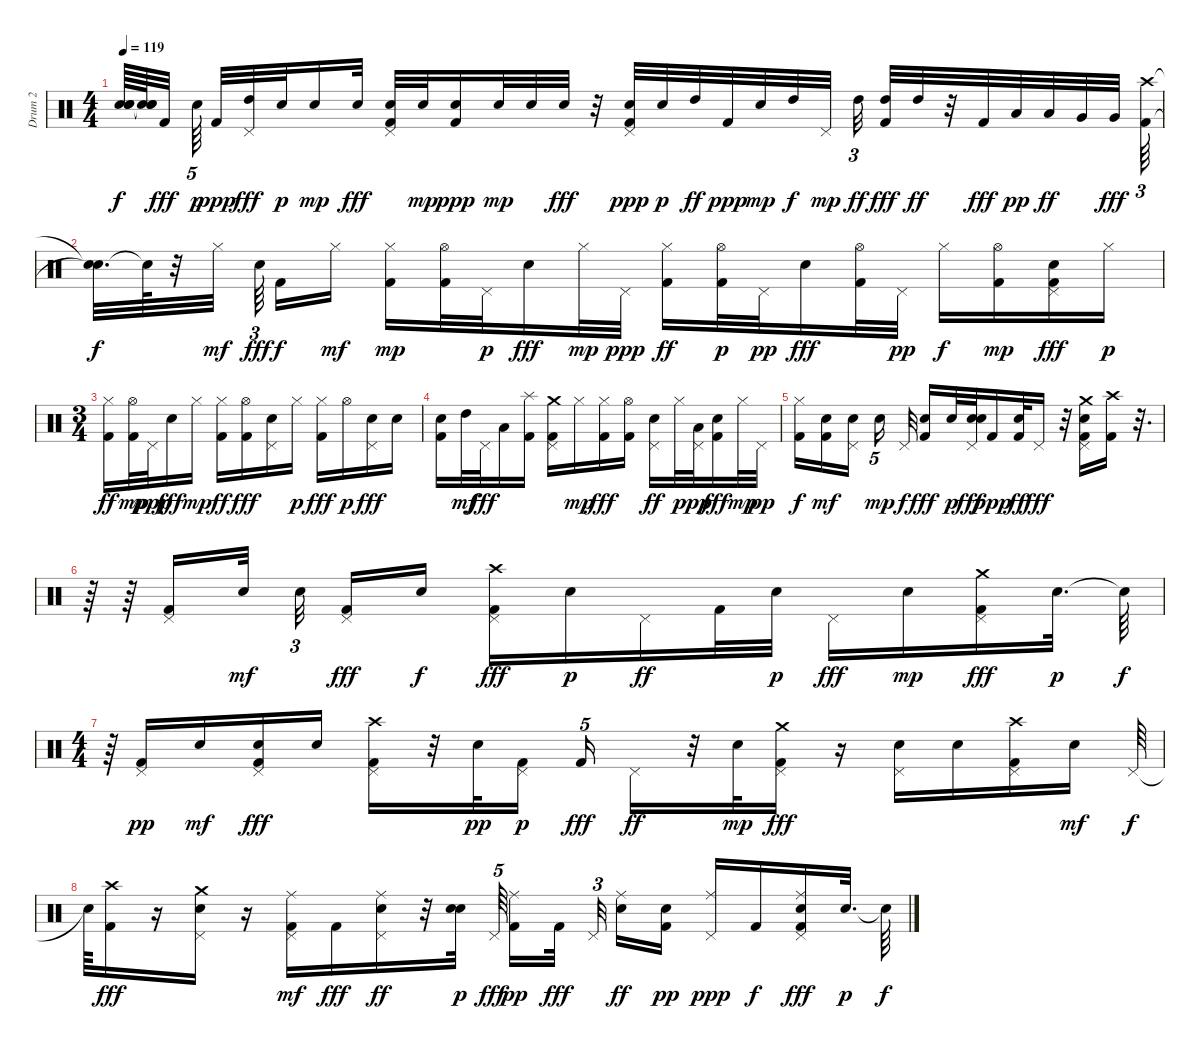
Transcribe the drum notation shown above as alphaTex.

\track ("Drum 2                          " "Drum 2    ") {instrument percussion}
\staff {score}
\articulation defaults
\ts (4 4)
\tempo 119
\clef neutral
\ks c
("Snare (hit)"{t} "Snare (hit)"{t} "Snare (hit)"{t}).64{dy f} ("Snare (hit)"{t} "Snare (hit)"{t} "Snare (hit)"{t}).64 "Kick (hit) 2".32{dy fff beam splitsecondary} "Snare (hit) 2".64{tu (5 4) dy p beam splitsecondary} "Kick (hit) 2".32{dy ppp} ("High Tom (hit)" "Pedal Hi-Hat (hit)").32{dy fff} "Snare (hit) 2".32{dy p} "Snare (hit) 2".16{dy mp} "Electric Snare (hit)".32{dy fff} ("Kick (hit) 2" "Pedal Hi-Hat (hit)" "Snare (hit) 2").32 "Snare (hit) 2".32{dy mp} ("Snare (hit) 2" "Kick (hit) 2").16{dy ppp} "Snare (hit) 2".32{dy mp} "Snare (hit) 2".32 "Snare (hit) 2".32{dy fff} r.32 ("Snare (hit) 2" "Pedal Hi-Hat (hit)" "Kick (hit) 2").32{dy ppp} "Snare (hit) 2".32{dy p} "High Tom (hit)".32{dy ff} "Kick (hit) 2".32{dy ppp} "Snare (hit) 2".32{dy mp} "High Tom (hit)".32{dy f} "Pedal Hi-Hat (hit)".32{dy mp beam splitsecondary} "High Tom (hit)".32{tu (3 2) dy ff} ("Kick (hit) 2" "High Tom (hit)").32{dy fff} "High Tom (hit)".32{dy ff} r.32 "Kick (hit) 2".32{dy fff} "Low Tom (hit)".32{dy pp} "Low Tom (hit)".32{dy ff} "Very Low Tom (hit)".32 "Very Low Tom (hit)".32{dy fff} ("Crash high (hit)" "Kick (hit) 2").64{tu (3 2)} |
("Snare (hit)"{t} "Snare (hit)"{t}).32{d dy f} "Snare (hit)"{t}.64 r.32 "Hi-Hat (closed)".32{dy mf beam splitsecondary} "Snare (hit) 2".64{tu (3 2) dy fff beam splitsecondary} "Kick (hit) 2".16{dy f} "Hi-Hat (closed)".16{dy mf} ("Kick (hit) 2" "Hi-Hat (closed)").16{dy mp} ("Kick (hit) 2" "Hi-Hat (open)").32 "Pedal Hi-Hat (hit)".32{dy p} "Snare (hit) 2".16{dy fff} "Hi-Hat (closed)".32{dy mp} "Pedal Hi-Hat (hit)".32{dy ppp} ("Kick (hit) 2" "Hi-Hat (closed)").16{dy ff} ("Kick (hit) 2" "Hi-Hat (open)").32{dy p} "Pedal Hi-Hat (hit)".32{dy pp} "Snare (hit) 2".16{dy fff} ("Hi-Hat (open)" "Kick (hit) 2").32 "Pedal Hi-Hat (hit)".32{dy pp} "Hi-Hat (closed)".16{dy f} ("Kick (hit) 2" "Hi-Hat (open)").16{dy mp} ("Pedal Hi-Hat (hit)" "Kick (hit) 2" "Snare (hit) 2").16{dy fff} "Hi-Hat (closed)".16{dy p} |
\ts (3 4)
("Kick (hit) 2" "Hi-Hat (closed)").16{dy ff} ("Kick (hit) 2" "Hi-Hat (open)").32{dy mp} "Pedal Hi-Hat (hit)".32{dy ppp} "Snare (hit) 2".16{dy fff} "Hi-Hat (closed)".16{dy mp} ("Kick (hit) 2" "Hi-Hat (closed)").16{dy ff} ("Hi-Hat (open)" "Kick (hit) 2").16{dy fff} ("Pedal Hi-Hat (hit)" "Snare (hit) 2").16 "Hi-Hat (closed)".16{dy p} ("Hi-Hat (closed)" "Kick (hit) 2").16{dy fff} "Hi-Hat (open)".16{dy p} ("Pedal Hi-Hat (hit)" "Snare (hit) 2").16{dy fff} "Snare (hit) 2".16 |
("Kick (hit) 2" "Snare (hit) 2").16 "High Tom (hit)".32{dy mf} "Pedal Hi-Hat (hit)".32{dy fff} "Low Tom (hit)".16 ("Splash (hit)" "Kick (hit) 2").16 ("Pedal Hi-Hat (hit)" "Kick (hit) 2" "Crash medium (hit)").16 "Hi-Hat (closed)".16{dy mp} ("Hi-Hat (closed)" "Kick (hit) 2").16{dy fff} ("Hi-Hat (open)" "Kick (hit) 2").16 ("Pedal Hi-Hat (hit)" "Snare (hit) 2").16{dy ff} "Hi-Hat (closed)".32{dy p} ("Low Tom (hit)" "Pedal Hi-Hat (hit)").32{dy pp} ("Kick (hit) 2" "Electric Snare (hit)").16{dy fff} "Hi-Hat (closed)".32{dy mp} "Pedal Hi-Hat (hit)".32{dy pp} |
("Hi-Hat (closed)" "Kick (hit) 2").16{dy f} ("Kick (hit) 2" "Electric Snare (hit)").16{dy mf} ("Pedal Hi-Hat (hit)" "Snare (hit) 2").16{beam splitsecondary} "Electric Snare (hit)".16{tu (5 4) dy mp} "Pedal Hi-Hat (hit)".32{dy f} ("Kick (hit) 2" "Snare (hit) 2").16{dy fff} "Snare (hit) 2".32{dy p} ("Electric Snare (hit)" "Snare (hit) 2" "Pedal Hi-Hat (hit)").32{dy fff} "Kick (hit) 2".16{dy ppp} ("Kick (hit) 2" "Snare (hit) 2").32{dy ff} "Pedal Hi-Hat (hit)".16{dy fff} r.32 ("Electric Snare (hit)" "Kick (hit) 2" "Crash medium (hit)" "Pedal Hi-Hat (hit)").16 ("Kick (hit) 2" "Crash high (hit)").16 r.32{d} |
r.64 r.64 ("Pedal Hi-Hat (hit)" "Kick (hit) 2").16 "Electric Snare (hit)".32{dy mf beam splitsecondary} "Snare (hit) 2".32{tu (3 2) beam splitsecondary} ("Kick (hit) 2" "Pedal Hi-Hat (hit)").16{dy fff} "Electric Snare (hit)".16{dy f} ("Pedal Hi-Hat (hit)" "Kick (hit) 2" "Crash high (hit)").16{dy fff} "Snare (hit) 2".16{dy p} "Pedal Hi-Hat (hit)".16{dy ff} "Kick (hit) 2".32 "Snare (hit) 2".32{dy p} "Pedal Hi-Hat (hit)".16{dy fff} "Snare (hit) 2".16{dy mp} ("Pedal Hi-Hat (hit)" "Kick (hit) 2" "Crash medium (hit)").16{dy fff} "Snare (hit) 2".32{d dy p} "Snare (hit)"{t}.64{dy f} |
\ts (4 4)
r.64 ("Pedal Hi-Hat (hit)" "Kick (hit) 2").16{dy pp} "Electric Snare (hit)".16{dy mf} ("Pedal Hi-Hat (hit)" "Kick (hit) 2" "Snare (hit) 2").16{dy fff} "Snare (hit) 2".16 ("Pedal Hi-Hat (hit)" "Kick (hit) 2" "Crash high (hit)").16 r.32 "Snare (hit) 2".32{dy pp} ("Pedal Hi-Hat (hit)" "Kick (hit) 2").16{dy p beam splitsecondary} "Kick (hit) 2".16{tu (5 4) dy fff} "Pedal Hi-Hat (hit)".16{dy ff} r.32 "Electric Snare (hit)".32{dy mp} ("Pedal Hi-Hat (hit)" "Crash medium (hit)" "Kick (hit) 2").16{dy fff} r.16 ("Pedal Hi-Hat (hit)" "Snare (hit) 2").16 "Electric Snare (hit)".16 ("Pedal Hi-Hat (hit)" "Crash high (hit)" "Kick (hit) 2").16 "Electric Snare (hit)".16{dy mf} "Pedal Hi-Hat (hit)".64{dy f} |
"Snare (hit)"{t}.64 ("Crash high (hit)" "Kick (hit) 2").16{dy fff} r.16 ("Crash medium (hit)" "Pedal Hi-Hat (hit)" "Electric Snare (hit)").16 r.16 ("Pedal Hi-Hat (hit)" "Ride (middle)" "Kick (hit) 2").16{dy mf} "Kick (hit) 2".16{dy fff} ("Pedal Hi-Hat (hit)" "Snare (hit) 2" "Ride (middle)").16{dy ff} r.32 ("Snare (hit) 2" "Snare (hit) 2").32{dy p} "Pedal Hi-Hat (hit)".64{tu (5 4) dy fff beam splitsecondary} ("Kick (hit) 2" "Ride (middle)").16{dy pp} "Kick (hit) 2".32{dy fff beam splitsecondary} "Pedal Hi-Hat (hit)".32{tu (3 2) beam splitsecondary} ("Snare (hit) 2" "Ride (middle)").16{dy ff} ("Kick (hit) 2" "Snare (hit) 2").16{dy pp} ("Pedal Hi-Hat (hit)" "Ride (middle)").16{dy ppp} "Kick (hit) 2".16{dy f} ("Pedal Hi-Hat (hit)" "Kick (hit) 2" "Snare (hit) 2" "Ride (middle)").16{dy fff} "Snare (hit) 2".32{d dy p} "Snare (hit)"{t}.64{dy f}
